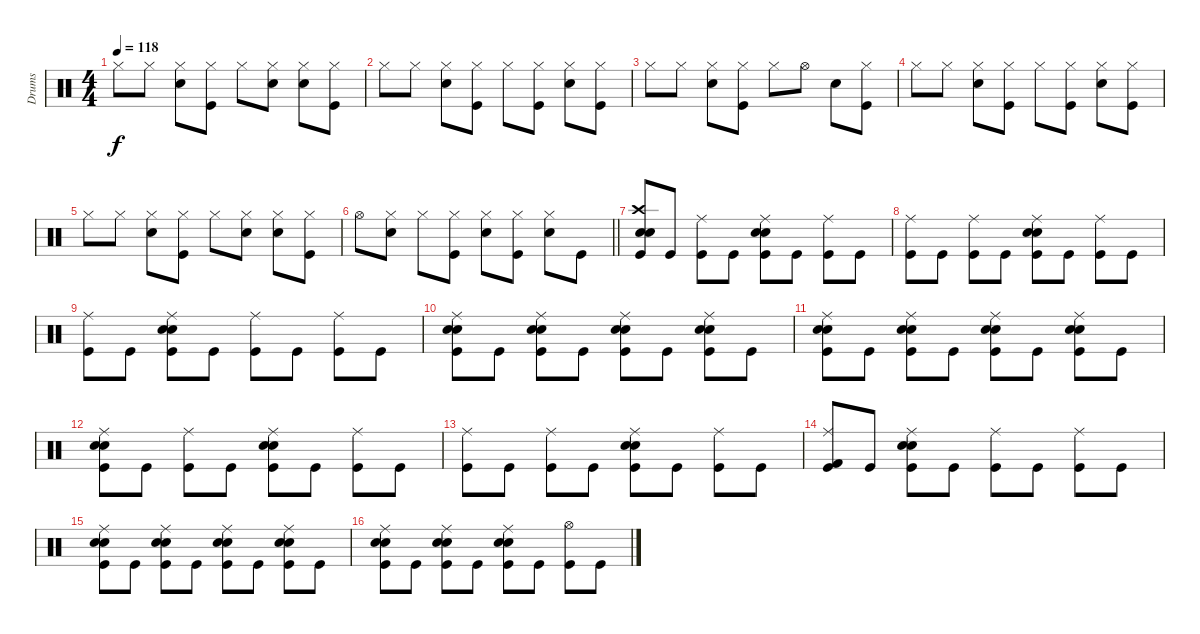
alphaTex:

\track ("Drums" "Drums") {instrument percussion}
\staff {score}
\articulation defaults
\ts (4 4)
\tempo 118
\clef neutral
\ks c "Hi-Hat (closed)".8{dy f} "Hi-Hat (closed)".8
("Hi-Hat (closed)" "Snare (hit) 2").8 ("Hi-Hat (closed)" "Kick (hit)").8 "Hi-Hat (closed)".8 ("Hi-Hat (closed)" "Snare (hit) 2").8 ("Hi-Hat (closed)" "Snare (hit) 2").8 ("Hi-Hat (closed)" "Kick (hit)").8 |
"Hi-Hat (closed)".8 "Hi-Hat (closed)".8 ("Hi-Hat (closed)" "Snare (hit) 2").8 ("Hi-Hat (closed)" "Kick (hit)").8 "Hi-Hat (closed)".8 ("Hi-Hat (closed)" "Kick (hit)").8 ("Hi-Hat (closed)" "Snare (hit) 2").8 ("Hi-Hat (closed)" "Kick (hit)").8 |
"Hi-Hat (closed)".8 "Hi-Hat (closed)".8 ("Hi-Hat (closed)" "Snare (hit) 2").8 ("Hi-Hat (closed)" "Kick (hit)").8 "Hi-Hat (closed)".8 "Hi-Hat (open)".8 "Snare (hit) 2".8 ("Hi-Hat (closed)" "Kick (hit)").8 |
"Hi-Hat (closed)".8 "Hi-Hat (closed)".8 ("Hi-Hat (closed)" "Snare (hit) 2").8 ("Hi-Hat (closed)" "Kick (hit)").8 "Hi-Hat (closed)".8 ("Hi-Hat (closed)" "Kick (hit)").8 ("Hi-Hat (closed)" "Snare (hit) 2").8 ("Hi-Hat (closed)" "Kick (hit)").8 |
"Hi-Hat (closed)".8 "Hi-Hat (closed)".8 ("Hi-Hat (closed)" "Snare (hit) 2").8 ("Hi-Hat (closed)" "Kick (hit)").8 "Hi-Hat (closed)".8 ("Hi-Hat (closed)" "Snare (hit) 2").8 ("Hi-Hat (closed)" "Snare (hit) 2").8 ("Hi-Hat (closed)" "Kick (hit)").8 |
\barLineRight lightlight "Hi-Hat (open)".8
("Hi-Hat (closed)" "Snare (hit) 2").8 "Hi-Hat (closed)".8 ("Hi-Hat (closed)" "Kick (hit)").8 ("Hi-Hat (closed)" "Snare (hit) 2").8 ("Hi-Hat (closed)" "Kick (hit)").8 ("Hi-Hat (closed)" "Snare (hit) 2").8 "Kick (hit)".8 |
("Crash high (hit)" "Snare (hit) 2" "Electric Snare (hit)" "Kick (hit)").8 "Kick (hit)".8 ("Ride (middle)" "Kick (hit)").8 "Kick (hit)".8 ("Ride (middle)" "Snare (hit) 2" "Electric Snare (hit)" "Kick (hit)").8 "Kick (hit)".8 ("Ride (middle)" "Kick (hit)").8 "Kick (hit)".8 |
("Ride (middle)" "Kick (hit)").8 "Kick (hit)".8 ("Ride (middle)" "Kick (hit)").8 "Kick (hit)".8 ("Ride (middle)" "Snare (hit) 2" "Electric Snare (hit)" "Kick (hit)").8 "Kick (hit)".8 ("Ride (middle)" "Kick (hit)").8 "Kick (hit)".8 |
("Ride (middle)" "Kick (hit)").8 "Kick (hit)".8 ("Ride (middle)" "Snare (hit) 2" "Electric Snare (hit)" "Kick (hit)").8 "Kick (hit)".8 ("Ride (middle)" "Kick (hit)").8 "Kick (hit)".8 ("Ride (middle)" "Kick (hit)").8 "Kick (hit)".8 |
("Ride (middle)" "Snare (hit) 2" "Electric Snare (hit)" "Kick (hit)").8 "Kick (hit)".8 ("Ride (middle)" "Snare (hit) 2" "Electric Snare (hit)" "Kick (hit)").8 "Kick (hit)".8 ("Ride (middle)" "Snare (hit) 2" "Electric Snare (hit)" "Kick (hit)").8 "Kick (hit)".8 ("Ride (middle)" "Snare (hit) 2" "Electric Snare (hit)" "Kick (hit)").8 "Kick (hit)".8 |
("Ride (middle)" "Snare (hit) 2" "Electric Snare (hit)" "Kick (hit)").8 "Kick (hit)".8 ("Ride (middle)" "Snare (hit) 2" "Electric Snare (hit)" "Kick (hit)").8 "Kick (hit)".8 ("Ride (middle)" "Snare (hit) 2" "Electric Snare (hit)" "Kick (hit)").8 "Kick (hit)".8 ("Ride (middle)" "Snare (hit) 2" "Electric Snare (hit)" "Kick (hit)").8 "Kick (hit)".8 |
("Ride (middle)" "Snare (hit) 2" "Electric Snare (hit)" "Kick (hit)").8 "Kick (hit)".8 ("Ride (middle)" "Kick (hit)").8 "Kick (hit)".8 ("Ride (middle)" "Snare (hit) 2" "Electric Snare (hit)" "Kick (hit)").8 "Kick (hit)".8 ("Ride (middle)" "Kick (hit)").8 "Kick (hit)".8 |
("Ride (middle)" "Kick (hit)").8 "Kick (hit)".8 ("Ride (middle)" "Kick (hit)").8 "Kick (hit)".8 ("Ride (middle)" "Snare (hit) 2" "Electric Snare (hit)" "Kick (hit)").8 "Kick (hit)".8 ("Ride (middle)" "Kick (hit)").8 "Kick (hit)".8 |
("Ride (middle)" "Kick (hit) 2" "Kick (hit)").8 "Kick (hit)".8 ("Ride (middle)" "Snare (hit) 2" "Electric Snare (hit)" "Kick (hit)").8 "Kick (hit)".8 ("Ride (middle)" "Kick (hit)").8 "Kick (hit)".8 ("Ride (middle)" "Kick (hit)").8 "Kick (hit)".8 |
("Ride (middle)" "Snare (hit) 2" "Electric Snare (hit)" "Kick (hit)").8 "Kick (hit)".8 ("Ride (middle)" "Snare (hit) 2" "Electric Snare (hit)" "Kick (hit)").8 "Kick (hit)".8 ("Ride (middle)" "Snare (hit) 2" "Electric Snare (hit)" "Kick (hit)").8 "Kick (hit)".8 ("Ride (middle)" "Snare (hit) 2" "Electric Snare (hit)" "Kick (hit)").8 "Kick (hit)".8 |
("Ride (middle)" "Snare (hit) 2" "Electric Snare (hit)" "Kick (hit)").8 "Kick (hit)".8 ("Ride (middle)" "Snare (hit) 2" "Electric Snare (hit)" "Kick (hit)").8 "Kick (hit)".8 ("Ride (middle)" "Snare (hit) 2" "Electric Snare (hit)" "Kick (hit)").8 "Kick (hit)".8 ("Hi-Hat (open)" "Kick (hit)").8 "Kick (hit)".8
